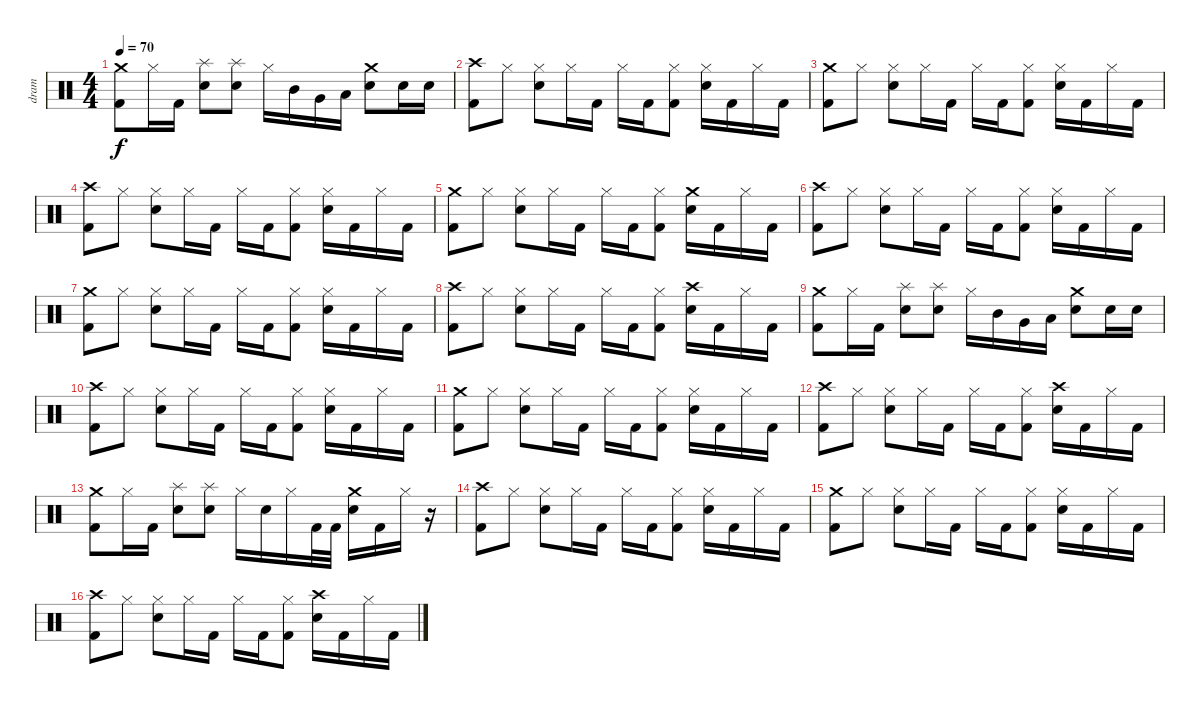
\track ("dram" "dram") {instrument percussion}
\staff {score}
\articulation defaults
\ts (4 4)
\tempo 70
\clef neutral
\ks c
("Crash medium (hit)" "Kick (hit) 2").8{dy f} "Hi-Hat (closed)".16 "Kick (hit) 2".16 ("Splash (hit)" "Electric Snare (hit)").8 ("Splash (hit)" "Electric Snare (hit)").8 "Hi-Hat (closed)".16 "Mid Tom (hit)".16 "Very Low Tom (hit)".16 "Low Floor Tom (hit)".16 ("Crash medium (hit)" "Electric Snare (hit)").8 "Electric Snare (hit)".16 "Electric Snare (hit)".16 |
("Crash high (hit)" "Kick (hit) 2").8 "Hi-Hat (closed)".8 ("Electric Snare (hit)" "Hi-Hat (closed)").8 "Hi-Hat (closed)".16 "Kick (hit) 2".16 "Hi-Hat (closed)".16 "Kick (hit) 2".16 ("Kick (hit) 2" "Hi-Hat (closed)").8 ("Electric Snare (hit)" "Hi-Hat (closed)").16 "Kick (hit) 2".16 "Hi-Hat (closed)".16 "Kick (hit) 2".16 |
("Crash medium (hit)" "Kick (hit) 2").8 "Hi-Hat (closed)".8 ("Electric Snare (hit)" "Hi-Hat (closed)").8 "Hi-Hat (closed)".16 "Kick (hit) 2".16 "Hi-Hat (closed)".16 "Kick (hit) 2".16 ("Kick (hit) 2" "Hi-Hat (closed)").8 ("Electric Snare (hit)" "Hi-Hat (closed)").16 "Kick (hit) 2".16 "Hi-Hat (closed)".16 "Kick (hit) 2".16 |
("Crash high (hit)" "Kick (hit) 2").8 "Hi-Hat (closed)".8 ("Electric Snare (hit)" "Hi-Hat (closed)").8 "Hi-Hat (closed)".16 "Kick (hit) 2".16 "Hi-Hat (closed)".16 "Kick (hit) 2".16 ("Kick (hit) 2" "Hi-Hat (closed)").8 ("Electric Snare (hit)" "Hi-Hat (closed)").16 "Kick (hit) 2".16 "Hi-Hat (closed)".16 "Kick (hit) 2".16 |
("Crash medium (hit)" "Kick (hit) 2").8 "Hi-Hat (closed)".8 ("Electric Snare (hit)" "Hi-Hat (closed)").8 "Hi-Hat (closed)".16 "Kick (hit) 2".16 "Hi-Hat (closed)".16 "Kick (hit) 2".16 ("Kick (hit) 2" "Hi-Hat (closed)").8 ("Crash medium (hit)" "Electric Snare (hit)").16 "Kick (hit) 2".16 "Hi-Hat (closed)".16 "Kick (hit) 2".16 |
("Crash high (hit)" "Kick (hit) 2").8 "Hi-Hat (closed)".8 ("Electric Snare (hit)" "Hi-Hat (closed)").8 "Hi-Hat (closed)".16 "Kick (hit) 2".16 "Hi-Hat (closed)".16 "Kick (hit) 2".16 ("Kick (hit) 2" "Hi-Hat (closed)").8 ("Electric Snare (hit)" "Hi-Hat (closed)").16 "Kick (hit) 2".16 "Hi-Hat (closed)".16 "Kick (hit) 2".16 |
("Crash medium (hit)" "Kick (hit) 2").8 "Hi-Hat (closed)".8 ("Electric Snare (hit)" "Hi-Hat (closed)").8 "Hi-Hat (closed)".16 "Kick (hit) 2".16 "Hi-Hat (closed)".16 "Kick (hit) 2".16 ("Kick (hit) 2" "Hi-Hat (closed)").8 ("Electric Snare (hit)" "Hi-Hat (closed)").16 "Kick (hit) 2".16 "Hi-Hat (closed)".16 "Kick (hit) 2".16 |
("Crash high (hit)" "Kick (hit) 2").8 "Hi-Hat (closed)".8 ("Electric Snare (hit)" "Hi-Hat (closed)").8 "Hi-Hat (closed)".16 "Kick (hit) 2".16 "Hi-Hat (closed)".16 "Kick (hit) 2".16 ("Kick (hit) 2" "Hi-Hat (closed)").8 ("Crash high (hit)" "Electric Snare (hit)").16 "Kick (hit) 2".16 "Hi-Hat (closed)".16 "Kick (hit) 2".16 |
("Crash medium (hit)" "Kick (hit) 2").8 "Hi-Hat (closed)".16 "Kick (hit) 2".16 ("Splash (hit)" "Electric Snare (hit)").8 ("Splash (hit)" "Electric Snare (hit)").8 "Hi-Hat (closed)".16 "Mid Tom (hit)".16 "Very Low Tom (hit)".16 "Low Floor Tom (hit)".16 ("Crash medium (hit)" "Electric Snare (hit)").8 "Electric Snare (hit)".16 "Electric Snare (hit)".16 |
("Crash high (hit)" "Kick (hit) 2").8 "Hi-Hat (closed)".8 ("Electric Snare (hit)" "Hi-Hat (closed)").8 "Hi-Hat (closed)".16 "Kick (hit) 2".16 "Hi-Hat (closed)".16 "Kick (hit) 2".16 ("Kick (hit) 2" "Hi-Hat (closed)").8 ("Electric Snare (hit)" "Hi-Hat (closed)").16 "Kick (hit) 2".16 "Hi-Hat (closed)".16 "Kick (hit) 2".16 |
("Crash medium (hit)" "Kick (hit) 2").8 "Hi-Hat (closed)".8 ("Electric Snare (hit)" "Hi-Hat (closed)").8 "Hi-Hat (closed)".16 "Kick (hit) 2".16 "Hi-Hat (closed)".16 "Kick (hit) 2".16 ("Kick (hit) 2" "Hi-Hat (closed)").8 ("Electric Snare (hit)" "Hi-Hat (closed)").16 "Kick (hit) 2".16 "Hi-Hat (closed)".16 "Kick (hit) 2".16 |
("Crash high (hit)" "Kick (hit) 2").8 "Hi-Hat (closed)".8 ("Electric Snare (hit)" "Hi-Hat (closed)").8 "Hi-Hat (closed)".16 "Kick (hit) 2".16 "Hi-Hat (closed)".16 "Kick (hit) 2".16 ("Kick (hit) 2" "Hi-Hat (closed)").8 ("Crash high (hit)" "Electric Snare (hit)").16 "Kick (hit) 2".16 "Hi-Hat (closed)".16 "Kick (hit) 2".16 |
("Crash medium (hit)" "Kick (hit) 2").8 "Hi-Hat (closed)".16 "Kick (hit) 2".16 ("Splash (hit)" "Electric Snare (hit)").8 ("Splash (hit)" "Electric Snare (hit)").8 "Hi-Hat (closed)".16 "Electric Snare (hit)".16 "Hi-Hat (closed)".16 "Kick (hit) 2".32 "Kick (hit) 2".32 ("Crash medium (hit)" "Electric Snare (hit)").16 "Kick (hit) 2".16 "Hi-Hat (closed)".16 r.16 |
("Crash high (hit)" "Kick (hit) 2").8 "Hi-Hat (closed)".8 ("Electric Snare (hit)" "Hi-Hat (closed)").8 "Hi-Hat (closed)".16 "Kick (hit) 2".16 "Hi-Hat (closed)".16 "Kick (hit) 2".16 ("Kick (hit) 2" "Hi-Hat (closed)").8 ("Electric Snare (hit)" "Hi-Hat (closed)").16 "Kick (hit) 2".16 "Hi-Hat (closed)".16 "Kick (hit) 2".16 |
("Crash medium (hit)" "Kick (hit) 2").8 "Hi-Hat (closed)".8 ("Electric Snare (hit)" "Hi-Hat (closed)").8 "Hi-Hat (closed)".16 "Kick (hit) 2".16 "Hi-Hat (closed)".16 "Kick (hit) 2".16 ("Kick (hit) 2" "Hi-Hat (closed)").8 ("Electric Snare (hit)" "Hi-Hat (closed)").16 "Kick (hit) 2".16 "Hi-Hat (closed)".16 "Kick (hit) 2".16 |
("Crash high (hit)" "Kick (hit) 2").8 "Hi-Hat (closed)".8 ("Electric Snare (hit)" "Hi-Hat (closed)").8 "Hi-Hat (closed)".16 "Kick (hit) 2".16 "Hi-Hat (closed)".16 "Kick (hit) 2".16 ("Kick (hit) 2" "Hi-Hat (closed)").8 ("Crash high (hit)" "Electric Snare (hit)").16 "Kick (hit) 2".16 "Hi-Hat (closed)".16 "Kick (hit) 2".16
